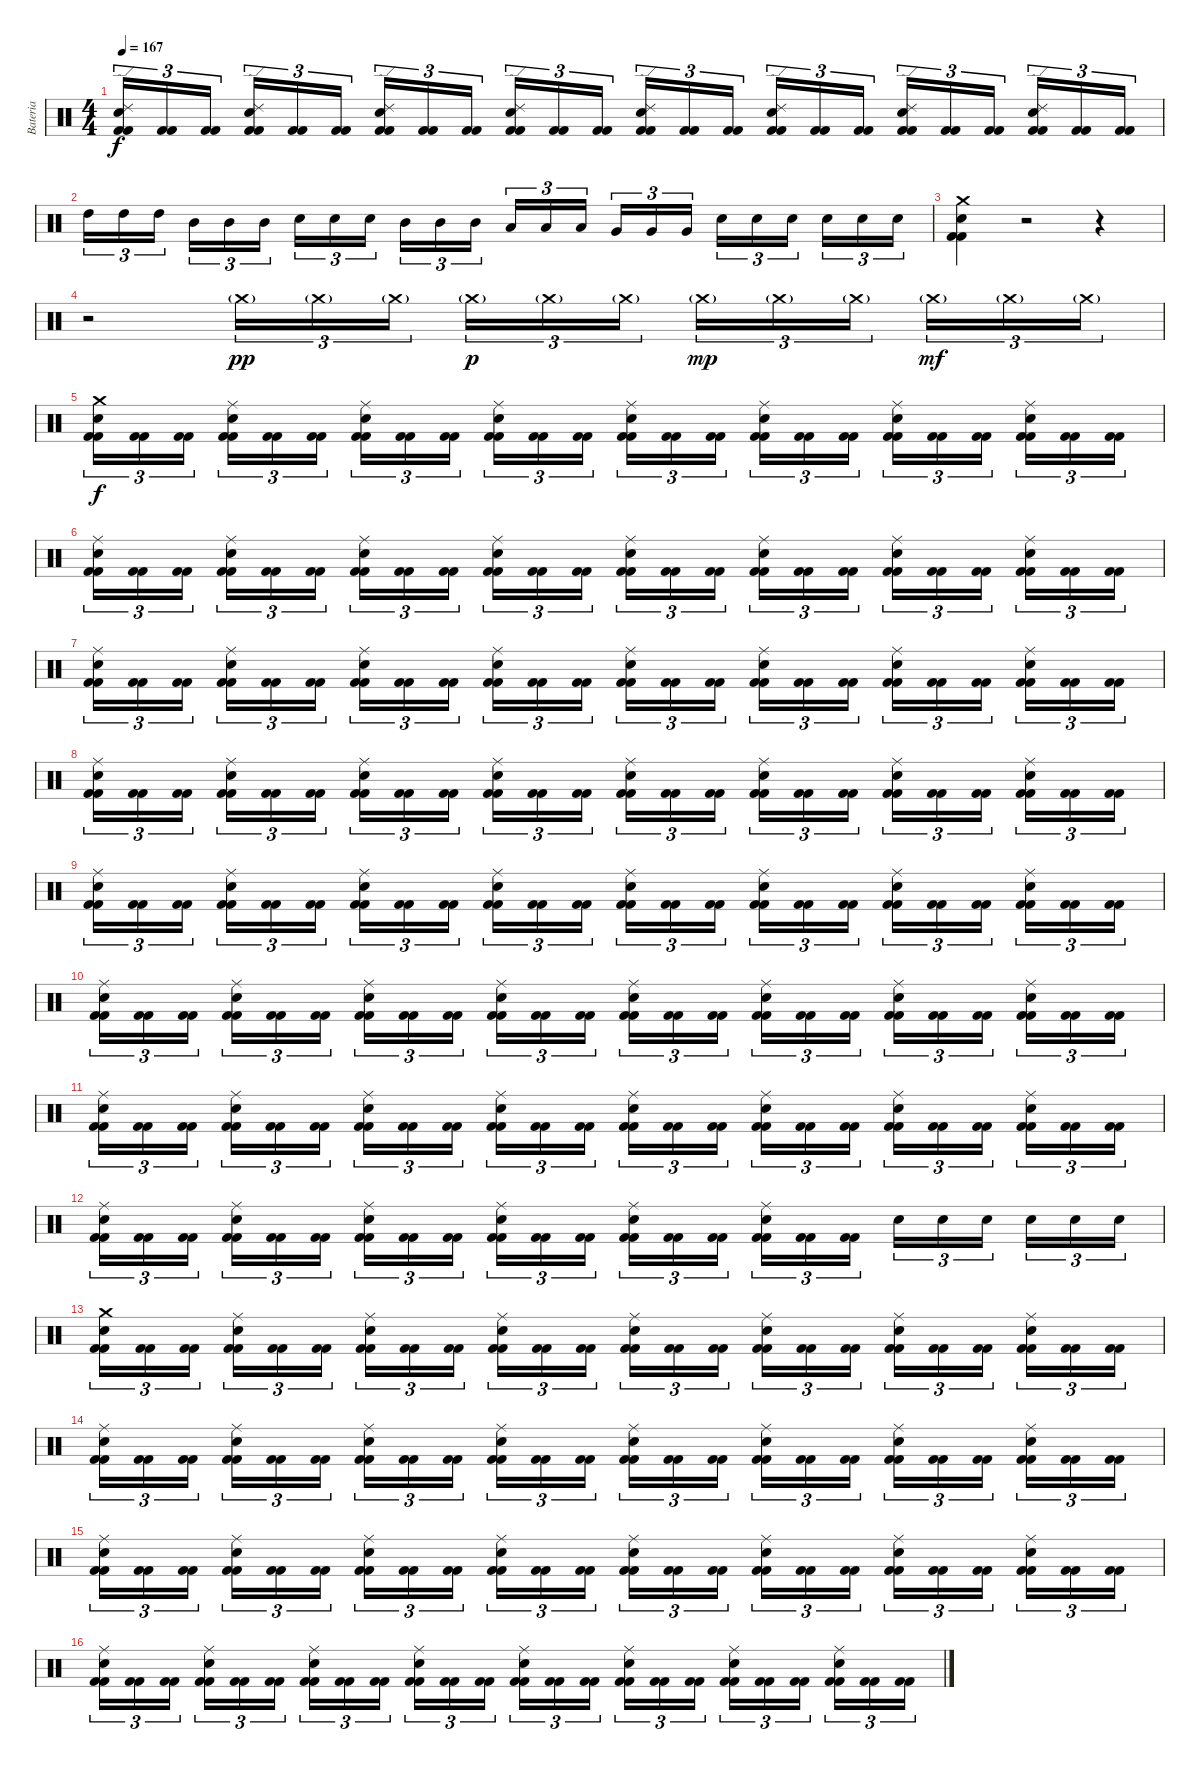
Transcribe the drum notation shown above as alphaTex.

\track ("Bateria" "Bateria") {instrument percussion}
\staff {score}
\articulation defaults
\ts (4 4)
\tempo 167
\clef neutral
\ks c
("Kick (hit) 2" "Kick (hit) 2" "Snare (hit) 2" "Ride (edge) 2").16{tu (3 2) dy f} ("Kick (hit) 2" "Kick (hit) 2").16{tu (3 2)} ("Kick (hit) 2" "Kick (hit) 2").16{tu (3 2)} ("Kick (hit) 2" "Kick (hit) 2" "Snare (hit) 2" "Ride (edge) 2").16{tu (3 2)} ("Kick (hit) 2" "Kick (hit) 2").16{tu (3 2)} ("Kick (hit) 2" "Kick (hit) 2").16{tu (3 2)} ("Kick (hit) 2" "Kick (hit) 2" "Snare (hit) 2" "Ride (edge) 2").16{tu (3 2)} ("Kick (hit) 2" "Kick (hit) 2").16{tu (3 2)} ("Kick (hit) 2" "Kick (hit) 2").16{tu (3 2)} ("Kick (hit) 2" "Kick (hit) 2" "Snare (hit) 2" "Ride (edge) 2").16{tu (3 2)} ("Kick (hit) 2" "Kick (hit) 2").16{tu (3 2)} ("Kick (hit) 2" "Kick (hit) 2").16{tu (3 2)} ("Kick (hit) 2" "Kick (hit) 2" "Snare (hit) 2" "Ride (edge) 2").16{tu (3 2)} ("Kick (hit) 2" "Kick (hit) 2").16{tu (3 2)} ("Kick (hit) 2" "Kick (hit) 2").16{tu (3 2)} ("Kick (hit) 2" "Kick (hit) 2" "Snare (hit) 2" "Ride (edge) 2").16{tu (3 2)} ("Kick (hit) 2" "Kick (hit) 2").16{tu (3 2)} ("Kick (hit) 2" "Kick (hit) 2").16{tu (3 2)} ("Kick (hit) 2" "Kick (hit) 2" "Snare (hit) 2" "Ride (edge) 2").16{tu (3 2)} ("Kick (hit) 2" "Kick (hit) 2").16{tu (3 2)} ("Kick (hit) 2" "Kick (hit) 2").16{tu (3 2)} ("Kick (hit) 2" "Kick (hit) 2" "Snare (hit) 2" "Ride (edge) 2").16{tu (3 2)} ("Kick (hit) 2" "Kick (hit) 2").16{tu (3 2)} ("Kick (hit) 2" "Kick (hit) 2").16{tu (3 2)} |
"High Tom (hit)".16{tu (3 2)} "High Tom (hit)".16{tu (3 2)} "High Tom (hit)".16{tu (3 2)} "Mid Tom (hit)".16{tu (3 2)} "Mid Tom (hit)".16{tu (3 2)} "Mid Tom (hit)".16{tu (3 2)} "Snare (hit) 2".16{tu (3 2)} "Snare (hit) 2".16{tu (3 2)} "Snare (hit) 2".16{tu (3 2)} "Mid Tom (hit)".16{tu (3 2)} "Mid Tom (hit)".16{tu (3 2)} "Mid Tom (hit)".16{tu (3 2)} "Low Tom (hit)".16{tu (3 2)} "Low Tom (hit)".16{tu (3 2)} "Low Tom (hit)".16{tu (3 2)} "Very Low Tom (hit)".16{tu (3 2)} "Very Low Tom (hit)".16{tu (3 2)} "Very Low Tom (hit)".16{tu (3 2)} "Snare (hit) 2".16{tu (3 2)} "Snare (hit) 2".16{tu (3 2)} "Snare (hit) 2".16{tu (3 2)} "Snare (hit) 2".16{tu (3 2)} "Snare (hit) 2".16{tu (3 2)} "Snare (hit) 2".16{tu (3 2)} |
("Kick (hit) 2" "Kick (hit) 2" "Snare (hit) 2" "Crash medium (hit)").4 r.2 r.4 |
r.2 "Crash medium (hit)"{g}.16{tu (3 2) dy pp} "Crash medium (hit)"{g}.16{tu (3 2)} "Crash medium (hit)"{g}.16{tu (3 2)} "Crash medium (hit)"{g}.16{tu (3 2) dy p} "Crash medium (hit)"{g}.16{tu (3 2)} "Crash medium (hit)"{g}.16{tu (3 2)} "Crash medium (hit)"{g}.16{tu (3 2) dy mp} "Crash medium (hit)"{g}.16{tu (3 2)} "Crash medium (hit)"{g}.16{tu (3 2)} "Crash medium (hit)"{g}.16{tu (3 2) dy mf} "Crash medium (hit)"{g}.16{tu (3 2)} "Crash medium (hit)"{g}.16{tu (3 2)} |
("Kick (hit) 2" "Kick (hit) 2" "Snare (hit) 2" "Crash medium (hit)").16{tu (3 2) dy f} ("Kick (hit) 2" "Kick (hit) 2").16{tu (3 2)} ("Kick (hit) 2" "Kick (hit) 2").16{tu (3 2)} ("Kick (hit) 2" "Kick (hit) 2" "Snare (hit) 2" "Ride (middle)").16{tu (3 2)} ("Kick (hit) 2" "Kick (hit) 2").16{tu (3 2)} ("Kick (hit) 2" "Kick (hit) 2").16{tu (3 2)} ("Kick (hit) 2" "Kick (hit) 2" "Snare (hit) 2" "Ride (middle)").16{tu (3 2)} ("Kick (hit) 2" "Kick (hit) 2").16{tu (3 2)} ("Kick (hit) 2" "Kick (hit) 2").16{tu (3 2)} ("Kick (hit) 2" "Kick (hit) 2" "Snare (hit) 2" "Ride (middle)").16{tu (3 2)} ("Kick (hit) 2" "Kick (hit) 2").16{tu (3 2)} ("Kick (hit) 2" "Kick (hit) 2").16{tu (3 2)} ("Kick (hit) 2" "Kick (hit) 2" "Snare (hit) 2" "Ride (middle)").16{tu (3 2)} ("Kick (hit) 2" "Kick (hit) 2").16{tu (3 2)} ("Kick (hit) 2" "Kick (hit) 2").16{tu (3 2)} ("Kick (hit) 2" "Kick (hit) 2" "Snare (hit) 2" "Ride (middle)").16{tu (3 2)} ("Kick (hit) 2" "Kick (hit) 2").16{tu (3 2)} ("Kick (hit) 2" "Kick (hit) 2").16{tu (3 2)} ("Kick (hit) 2" "Kick (hit) 2" "Snare (hit) 2" "Ride (middle)").16{tu (3 2)} ("Kick (hit) 2" "Kick (hit) 2").16{tu (3 2)} ("Kick (hit) 2" "Kick (hit) 2").16{tu (3 2)} ("Kick (hit) 2" "Kick (hit) 2" "Snare (hit) 2" "Ride (middle)").16{tu (3 2)} ("Kick (hit) 2" "Kick (hit) 2").16{tu (3 2)} ("Kick (hit) 2" "Kick (hit) 2").16{tu (3 2)} |
("Kick (hit) 2" "Kick (hit) 2" "Snare (hit) 2" "Ride (middle)").16{tu (3 2)} ("Kick (hit) 2" "Kick (hit) 2").16{tu (3 2)} ("Kick (hit) 2" "Kick (hit) 2").16{tu (3 2)} ("Kick (hit) 2" "Kick (hit) 2" "Snare (hit) 2" "Ride (middle)").16{tu (3 2)} ("Kick (hit) 2" "Kick (hit) 2").16{tu (3 2)} ("Kick (hit) 2" "Kick (hit) 2").16{tu (3 2)} ("Kick (hit) 2" "Kick (hit) 2" "Snare (hit) 2" "Ride (middle)").16{tu (3 2)} ("Kick (hit) 2" "Kick (hit) 2").16{tu (3 2)} ("Kick (hit) 2" "Kick (hit) 2").16{tu (3 2)} ("Kick (hit) 2" "Kick (hit) 2" "Snare (hit) 2" "Ride (middle)").16{tu (3 2)} ("Kick (hit) 2" "Kick (hit) 2").16{tu (3 2)} ("Kick (hit) 2" "Kick (hit) 2").16{tu (3 2)} ("Kick (hit) 2" "Kick (hit) 2" "Snare (hit) 2" "Ride (middle)").16{tu (3 2)} ("Kick (hit) 2" "Kick (hit) 2").16{tu (3 2)} ("Kick (hit) 2" "Kick (hit) 2").16{tu (3 2)} ("Kick (hit) 2" "Kick (hit) 2" "Snare (hit) 2" "Ride (middle)").16{tu (3 2)} ("Kick (hit) 2" "Kick (hit) 2").16{tu (3 2)} ("Kick (hit) 2" "Kick (hit) 2").16{tu (3 2)} ("Kick (hit) 2" "Kick (hit) 2" "Snare (hit) 2" "Ride (middle)").16{tu (3 2)} ("Kick (hit) 2" "Kick (hit) 2").16{tu (3 2)} ("Kick (hit) 2" "Kick (hit) 2").16{tu (3 2)} ("Kick (hit) 2" "Kick (hit) 2" "Snare (hit) 2" "Ride (middle)").16{tu (3 2)} ("Kick (hit) 2" "Kick (hit) 2").16{tu (3 2)} ("Kick (hit) 2" "Kick (hit) 2").16{tu (3 2)} |
("Kick (hit) 2" "Kick (hit) 2" "Snare (hit) 2" "Ride (middle)").16{tu (3 2)} ("Kick (hit) 2" "Kick (hit) 2").16{tu (3 2)} ("Kick (hit) 2" "Kick (hit) 2").16{tu (3 2)} ("Kick (hit) 2" "Kick (hit) 2" "Snare (hit) 2" "Ride (middle)").16{tu (3 2)} ("Kick (hit) 2" "Kick (hit) 2").16{tu (3 2)} ("Kick (hit) 2" "Kick (hit) 2").16{tu (3 2)} ("Kick (hit) 2" "Kick (hit) 2" "Snare (hit) 2" "Ride (middle)").16{tu (3 2)} ("Kick (hit) 2" "Kick (hit) 2").16{tu (3 2)} ("Kick (hit) 2" "Kick (hit) 2").16{tu (3 2)} ("Kick (hit) 2" "Kick (hit) 2" "Snare (hit) 2" "Ride (middle)").16{tu (3 2)} ("Kick (hit) 2" "Kick (hit) 2").16{tu (3 2)} ("Kick (hit) 2" "Kick (hit) 2").16{tu (3 2)} ("Kick (hit) 2" "Kick (hit) 2" "Snare (hit) 2" "Ride (middle)").16{tu (3 2)} ("Kick (hit) 2" "Kick (hit) 2").16{tu (3 2)} ("Kick (hit) 2" "Kick (hit) 2").16{tu (3 2)} ("Kick (hit) 2" "Kick (hit) 2" "Snare (hit) 2" "Ride (middle)").16{tu (3 2)} ("Kick (hit) 2" "Kick (hit) 2").16{tu (3 2)} ("Kick (hit) 2" "Kick (hit) 2").16{tu (3 2)} ("Kick (hit) 2" "Kick (hit) 2" "Snare (hit) 2" "Ride (middle)").16{tu (3 2)} ("Kick (hit) 2" "Kick (hit) 2").16{tu (3 2)} ("Kick (hit) 2" "Kick (hit) 2").16{tu (3 2)} ("Kick (hit) 2" "Kick (hit) 2" "Snare (hit) 2" "Ride (middle)").16{tu (3 2)} ("Kick (hit) 2" "Kick (hit) 2").16{tu (3 2)} ("Kick (hit) 2" "Kick (hit) 2").16{tu (3 2)} |
("Kick (hit) 2" "Kick (hit) 2" "Snare (hit) 2" "Ride (middle)").16{tu (3 2)} ("Kick (hit) 2" "Kick (hit) 2").16{tu (3 2)} ("Kick (hit) 2" "Kick (hit) 2").16{tu (3 2)} ("Kick (hit) 2" "Kick (hit) 2" "Snare (hit) 2" "Ride (middle)").16{tu (3 2)} ("Kick (hit) 2" "Kick (hit) 2").16{tu (3 2)} ("Kick (hit) 2" "Kick (hit) 2").16{tu (3 2)} ("Kick (hit) 2" "Kick (hit) 2" "Snare (hit) 2" "Ride (middle)").16{tu (3 2)} ("Kick (hit) 2" "Kick (hit) 2").16{tu (3 2)} ("Kick (hit) 2" "Kick (hit) 2").16{tu (3 2)} ("Kick (hit) 2" "Kick (hit) 2" "Snare (hit) 2" "Ride (middle)").16{tu (3 2)} ("Kick (hit) 2" "Kick (hit) 2").16{tu (3 2)} ("Kick (hit) 2" "Kick (hit) 2").16{tu (3 2)} ("Kick (hit) 2" "Kick (hit) 2" "Snare (hit) 2" "Ride (middle)").16{tu (3 2)} ("Kick (hit) 2" "Kick (hit) 2").16{tu (3 2)} ("Kick (hit) 2" "Kick (hit) 2").16{tu (3 2)} ("Kick (hit) 2" "Kick (hit) 2" "Snare (hit) 2" "Ride (middle)").16{tu (3 2)} ("Kick (hit) 2" "Kick (hit) 2").16{tu (3 2)} ("Kick (hit) 2" "Kick (hit) 2").16{tu (3 2)} ("Kick (hit) 2" "Kick (hit) 2" "Snare (hit) 2" "Ride (middle)").16{tu (3 2)} ("Kick (hit) 2" "Kick (hit) 2").16{tu (3 2)} ("Kick (hit) 2" "Kick (hit) 2").16{tu (3 2)} ("Kick (hit) 2" "Kick (hit) 2" "Snare (hit) 2" "Ride (middle)").16{tu (3 2)} ("Kick (hit) 2" "Kick (hit) 2").16{tu (3 2)} ("Kick (hit) 2" "Kick (hit) 2").16{tu (3 2)} |
("Kick (hit) 2" "Kick (hit) 2" "Snare (hit) 2" "Ride (middle)").16{tu (3 2)} ("Kick (hit) 2" "Kick (hit) 2").16{tu (3 2)} ("Kick (hit) 2" "Kick (hit) 2").16{tu (3 2)} ("Kick (hit) 2" "Kick (hit) 2" "Snare (hit) 2" "Ride (middle)").16{tu (3 2)} ("Kick (hit) 2" "Kick (hit) 2").16{tu (3 2)} ("Kick (hit) 2" "Kick (hit) 2").16{tu (3 2)} ("Kick (hit) 2" "Kick (hit) 2" "Snare (hit) 2" "Ride (middle)").16{tu (3 2)} ("Kick (hit) 2" "Kick (hit) 2").16{tu (3 2)} ("Kick (hit) 2" "Kick (hit) 2").16{tu (3 2)} ("Kick (hit) 2" "Kick (hit) 2" "Snare (hit) 2" "Ride (middle)").16{tu (3 2)} ("Kick (hit) 2" "Kick (hit) 2").16{tu (3 2)} ("Kick (hit) 2" "Kick (hit) 2").16{tu (3 2)} ("Kick (hit) 2" "Kick (hit) 2" "Snare (hit) 2" "Ride (middle)").16{tu (3 2)} ("Kick (hit) 2" "Kick (hit) 2").16{tu (3 2)} ("Kick (hit) 2" "Kick (hit) 2").16{tu (3 2)} ("Kick (hit) 2" "Kick (hit) 2" "Snare (hit) 2" "Ride (middle)").16{tu (3 2)} ("Kick (hit) 2" "Kick (hit) 2").16{tu (3 2)} ("Kick (hit) 2" "Kick (hit) 2").16{tu (3 2)} ("Kick (hit) 2" "Kick (hit) 2" "Snare (hit) 2" "Ride (middle)").16{tu (3 2)} ("Kick (hit) 2" "Kick (hit) 2").16{tu (3 2)} ("Kick (hit) 2" "Kick (hit) 2").16{tu (3 2)} ("Kick (hit) 2" "Kick (hit) 2" "Snare (hit) 2" "Ride (middle)").16{tu (3 2)} ("Kick (hit) 2" "Kick (hit) 2").16{tu (3 2)} ("Kick (hit) 2" "Kick (hit) 2").16{tu (3 2)} |
("Kick (hit) 2" "Kick (hit) 2" "Snare (hit) 2" "Ride (middle)").16{tu (3 2)} ("Kick (hit) 2" "Kick (hit) 2").16{tu (3 2)} ("Kick (hit) 2" "Kick (hit) 2").16{tu (3 2)} ("Kick (hit) 2" "Kick (hit) 2" "Snare (hit) 2" "Ride (middle)").16{tu (3 2)} ("Kick (hit) 2" "Kick (hit) 2").16{tu (3 2)} ("Kick (hit) 2" "Kick (hit) 2").16{tu (3 2)} ("Kick (hit) 2" "Kick (hit) 2" "Snare (hit) 2" "Ride (middle)").16{tu (3 2)} ("Kick (hit) 2" "Kick (hit) 2").16{tu (3 2)} ("Kick (hit) 2" "Kick (hit) 2").16{tu (3 2)} ("Kick (hit) 2" "Kick (hit) 2" "Snare (hit) 2" "Ride (middle)").16{tu (3 2)} ("Kick (hit) 2" "Kick (hit) 2").16{tu (3 2)} ("Kick (hit) 2" "Kick (hit) 2").16{tu (3 2)} ("Kick (hit) 2" "Kick (hit) 2" "Snare (hit) 2" "Ride (middle)").16{tu (3 2)} ("Kick (hit) 2" "Kick (hit) 2").16{tu (3 2)} ("Kick (hit) 2" "Kick (hit) 2").16{tu (3 2)} ("Kick (hit) 2" "Kick (hit) 2" "Snare (hit) 2" "Ride (middle)").16{tu (3 2)} ("Kick (hit) 2" "Kick (hit) 2").16{tu (3 2)} ("Kick (hit) 2" "Kick (hit) 2").16{tu (3 2)} ("Kick (hit) 2" "Kick (hit) 2" "Snare (hit) 2" "Ride (middle)").16{tu (3 2)} ("Kick (hit) 2" "Kick (hit) 2").16{tu (3 2)} ("Kick (hit) 2" "Kick (hit) 2").16{tu (3 2)} ("Kick (hit) 2" "Kick (hit) 2" "Snare (hit) 2" "Ride (middle)").16{tu (3 2)} ("Kick (hit) 2" "Kick (hit) 2").16{tu (3 2)} ("Kick (hit) 2" "Kick (hit) 2").16{tu (3 2)} |
("Kick (hit) 2" "Kick (hit) 2" "Snare (hit) 2" "Ride (middle)").16{tu (3 2)} ("Kick (hit) 2" "Kick (hit) 2").16{tu (3 2)} ("Kick (hit) 2" "Kick (hit) 2").16{tu (3 2)} ("Kick (hit) 2" "Kick (hit) 2" "Snare (hit) 2" "Ride (middle)").16{tu (3 2)} ("Kick (hit) 2" "Kick (hit) 2").16{tu (3 2)} ("Kick (hit) 2" "Kick (hit) 2").16{tu (3 2)} ("Kick (hit) 2" "Kick (hit) 2" "Snare (hit) 2" "Ride (middle)").16{tu (3 2)} ("Kick (hit) 2" "Kick (hit) 2").16{tu (3 2)} ("Kick (hit) 2" "Kick (hit) 2").16{tu (3 2)} ("Kick (hit) 2" "Kick (hit) 2" "Snare (hit) 2" "Ride (middle)").16{tu (3 2)} ("Kick (hit) 2" "Kick (hit) 2").16{tu (3 2)} ("Kick (hit) 2" "Kick (hit) 2").16{tu (3 2)} ("Kick (hit) 2" "Kick (hit) 2" "Snare (hit) 2" "Ride (middle)").16{tu (3 2)} ("Kick (hit) 2" "Kick (hit) 2").16{tu (3 2)} ("Kick (hit) 2" "Kick (hit) 2").16{tu (3 2)} ("Kick (hit) 2" "Kick (hit) 2" "Snare (hit) 2" "Ride (middle)").16{tu (3 2)} ("Kick (hit) 2" "Kick (hit) 2").16{tu (3 2)} ("Kick (hit) 2" "Kick (hit) 2").16{tu (3 2)} ("Kick (hit) 2" "Kick (hit) 2" "Snare (hit) 2" "Ride (middle)").16{tu (3 2)} ("Kick (hit) 2" "Kick (hit) 2").16{tu (3 2)} ("Kick (hit) 2" "Kick (hit) 2").16{tu (3 2)} ("Kick (hit) 2" "Kick (hit) 2" "Snare (hit) 2" "Ride (middle)").16{tu (3 2)} ("Kick (hit) 2" "Kick (hit) 2").16{tu (3 2)} ("Kick (hit) 2" "Kick (hit) 2").16{tu (3 2)} |
("Kick (hit) 2" "Kick (hit) 2" "Snare (hit) 2" "Ride (middle)").16{tu (3 2)} ("Kick (hit) 2" "Kick (hit) 2").16{tu (3 2)} ("Kick (hit) 2" "Kick (hit) 2").16{tu (3 2)} ("Kick (hit) 2" "Kick (hit) 2" "Snare (hit) 2" "Ride (middle)").16{tu (3 2)} ("Kick (hit) 2" "Kick (hit) 2").16{tu (3 2)} ("Kick (hit) 2" "Kick (hit) 2").16{tu (3 2)} ("Kick (hit) 2" "Kick (hit) 2" "Snare (hit) 2" "Ride (middle)").16{tu (3 2)} ("Kick (hit) 2" "Kick (hit) 2").16{tu (3 2)} ("Kick (hit) 2" "Kick (hit) 2").16{tu (3 2)} ("Kick (hit) 2" "Kick (hit) 2" "Snare (hit) 2" "Ride (middle)").16{tu (3 2)} ("Kick (hit) 2" "Kick (hit) 2").16{tu (3 2)} ("Kick (hit) 2" "Kick (hit) 2").16{tu (3 2)} ("Kick (hit) 2" "Kick (hit) 2" "Snare (hit) 2" "Ride (middle)").16{tu (3 2)} ("Kick (hit) 2" "Kick (hit) 2").16{tu (3 2)} ("Kick (hit) 2" "Kick (hit) 2").16{tu (3 2)} ("Kick (hit) 2" "Kick (hit) 2" "Snare (hit) 2" "Ride (middle)").16{tu (3 2)} ("Kick (hit) 2" "Kick (hit) 2").16{tu (3 2)} ("Kick (hit) 2" "Kick (hit) 2").16{tu (3 2)} "Snare (hit) 2".16{tu (3 2)} "Snare (hit) 2".16{tu (3 2)} "Snare (hit) 2".16{tu (3 2)} "Snare (hit) 2".16{tu (3 2)} "Snare (hit) 2".16{tu (3 2)} "Snare (hit) 2".16{tu (3 2)} |
("Kick (hit) 2" "Kick (hit) 2" "Snare (hit) 2" "Crash medium (hit)").16{tu (3 2)} ("Kick (hit) 2" "Kick (hit) 2").16{tu (3 2)} ("Kick (hit) 2" "Kick (hit) 2").16{tu (3 2)} ("Kick (hit) 2" "Kick (hit) 2" "Snare (hit) 2" "Ride (middle)").16{tu (3 2)} ("Kick (hit) 2" "Kick (hit) 2").16{tu (3 2)} ("Kick (hit) 2" "Kick (hit) 2").16{tu (3 2)} ("Kick (hit) 2" "Kick (hit) 2" "Snare (hit) 2" "Ride (middle)").16{tu (3 2)} ("Kick (hit) 2" "Kick (hit) 2").16{tu (3 2)} ("Kick (hit) 2" "Kick (hit) 2").16{tu (3 2)} ("Kick (hit) 2" "Kick (hit) 2" "Snare (hit) 2" "Ride (middle)").16{tu (3 2)} ("Kick (hit) 2" "Kick (hit) 2").16{tu (3 2)} ("Kick (hit) 2" "Kick (hit) 2").16{tu (3 2)} ("Kick (hit) 2" "Kick (hit) 2" "Snare (hit) 2" "Ride (middle)").16{tu (3 2)} ("Kick (hit) 2" "Kick (hit) 2").16{tu (3 2)} ("Kick (hit) 2" "Kick (hit) 2").16{tu (3 2)} ("Kick (hit) 2" "Kick (hit) 2" "Snare (hit) 2" "Ride (middle)").16{tu (3 2)} ("Kick (hit) 2" "Kick (hit) 2").16{tu (3 2)} ("Kick (hit) 2" "Kick (hit) 2").16{tu (3 2)} ("Kick (hit) 2" "Kick (hit) 2" "Snare (hit) 2" "Ride (middle)").16{tu (3 2)} ("Kick (hit) 2" "Kick (hit) 2").16{tu (3 2)} ("Kick (hit) 2" "Kick (hit) 2").16{tu (3 2)} ("Kick (hit) 2" "Kick (hit) 2" "Snare (hit) 2" "Ride (middle)").16{tu (3 2)} ("Kick (hit) 2" "Kick (hit) 2").16{tu (3 2)} ("Kick (hit) 2" "Kick (hit) 2").16{tu (3 2)} |
("Kick (hit) 2" "Kick (hit) 2" "Snare (hit) 2" "Ride (middle)").16{tu (3 2)} ("Kick (hit) 2" "Kick (hit) 2").16{tu (3 2)} ("Kick (hit) 2" "Kick (hit) 2").16{tu (3 2)} ("Kick (hit) 2" "Kick (hit) 2" "Snare (hit) 2" "Ride (middle)").16{tu (3 2)} ("Kick (hit) 2" "Kick (hit) 2").16{tu (3 2)} ("Kick (hit) 2" "Kick (hit) 2").16{tu (3 2)} ("Kick (hit) 2" "Kick (hit) 2" "Snare (hit) 2" "Ride (middle)").16{tu (3 2)} ("Kick (hit) 2" "Kick (hit) 2").16{tu (3 2)} ("Kick (hit) 2" "Kick (hit) 2").16{tu (3 2)} ("Kick (hit) 2" "Kick (hit) 2" "Snare (hit) 2" "Ride (middle)").16{tu (3 2)} ("Kick (hit) 2" "Kick (hit) 2").16{tu (3 2)} ("Kick (hit) 2" "Kick (hit) 2").16{tu (3 2)} ("Kick (hit) 2" "Kick (hit) 2" "Snare (hit) 2" "Ride (middle)").16{tu (3 2)} ("Kick (hit) 2" "Kick (hit) 2").16{tu (3 2)} ("Kick (hit) 2" "Kick (hit) 2").16{tu (3 2)} ("Kick (hit) 2" "Kick (hit) 2" "Snare (hit) 2" "Ride (middle)").16{tu (3 2)} ("Kick (hit) 2" "Kick (hit) 2").16{tu (3 2)} ("Kick (hit) 2" "Kick (hit) 2").16{tu (3 2)} ("Kick (hit) 2" "Kick (hit) 2" "Snare (hit) 2" "Ride (middle)").16{tu (3 2)} ("Kick (hit) 2" "Kick (hit) 2").16{tu (3 2)} ("Kick (hit) 2" "Kick (hit) 2").16{tu (3 2)} ("Kick (hit) 2" "Kick (hit) 2" "Snare (hit) 2" "Ride (middle)").16{tu (3 2)} ("Kick (hit) 2" "Kick (hit) 2").16{tu (3 2)} ("Kick (hit) 2" "Kick (hit) 2").16{tu (3 2)} |
("Kick (hit) 2" "Kick (hit) 2" "Snare (hit) 2" "Ride (middle)").16{tu (3 2)} ("Kick (hit) 2" "Kick (hit) 2").16{tu (3 2)} ("Kick (hit) 2" "Kick (hit) 2").16{tu (3 2)} ("Kick (hit) 2" "Kick (hit) 2" "Snare (hit) 2" "Ride (middle)").16{tu (3 2)} ("Kick (hit) 2" "Kick (hit) 2").16{tu (3 2)} ("Kick (hit) 2" "Kick (hit) 2").16{tu (3 2)} ("Kick (hit) 2" "Kick (hit) 2" "Snare (hit) 2" "Ride (middle)").16{tu (3 2)} ("Kick (hit) 2" "Kick (hit) 2").16{tu (3 2)} ("Kick (hit) 2" "Kick (hit) 2").16{tu (3 2)} ("Kick (hit) 2" "Kick (hit) 2" "Snare (hit) 2" "Ride (middle)").16{tu (3 2)} ("Kick (hit) 2" "Kick (hit) 2").16{tu (3 2)} ("Kick (hit) 2" "Kick (hit) 2").16{tu (3 2)} ("Kick (hit) 2" "Kick (hit) 2" "Snare (hit) 2" "Ride (middle)").16{tu (3 2)} ("Kick (hit) 2" "Kick (hit) 2").16{tu (3 2)} ("Kick (hit) 2" "Kick (hit) 2").16{tu (3 2)} ("Kick (hit) 2" "Kick (hit) 2" "Snare (hit) 2" "Ride (middle)").16{tu (3 2)} ("Kick (hit) 2" "Kick (hit) 2").16{tu (3 2)} ("Kick (hit) 2" "Kick (hit) 2").16{tu (3 2)} ("Kick (hit) 2" "Kick (hit) 2" "Snare (hit) 2" "Ride (middle)").16{tu (3 2)} ("Kick (hit) 2" "Kick (hit) 2").16{tu (3 2)} ("Kick (hit) 2" "Kick (hit) 2").16{tu (3 2)} ("Kick (hit) 2" "Kick (hit) 2" "Snare (hit) 2" "Ride (middle)").16{tu (3 2)} ("Kick (hit) 2" "Kick (hit) 2").16{tu (3 2)} ("Kick (hit) 2" "Kick (hit) 2").16{tu (3 2)} |
("Kick (hit) 2" "Kick (hit) 2" "Snare (hit) 2" "Ride (middle)").16{tu (3 2)} ("Kick (hit) 2" "Kick (hit) 2").16{tu (3 2)} ("Kick (hit) 2" "Kick (hit) 2").16{tu (3 2)} ("Kick (hit) 2" "Kick (hit) 2" "Snare (hit) 2" "Ride (middle)").16{tu (3 2)} ("Kick (hit) 2" "Kick (hit) 2").16{tu (3 2)} ("Kick (hit) 2" "Kick (hit) 2").16{tu (3 2)} ("Kick (hit) 2" "Kick (hit) 2" "Snare (hit) 2" "Ride (middle)").16{tu (3 2)} ("Kick (hit) 2" "Kick (hit) 2").16{tu (3 2)} ("Kick (hit) 2" "Kick (hit) 2").16{tu (3 2)} ("Kick (hit) 2" "Kick (hit) 2" "Snare (hit) 2" "Ride (middle)").16{tu (3 2)} ("Kick (hit) 2" "Kick (hit) 2").16{tu (3 2)} ("Kick (hit) 2" "Kick (hit) 2").16{tu (3 2)} ("Kick (hit) 2" "Kick (hit) 2" "Snare (hit) 2" "Ride (middle)").16{tu (3 2)} ("Kick (hit) 2" "Kick (hit) 2").16{tu (3 2)} ("Kick (hit) 2" "Kick (hit) 2").16{tu (3 2)} ("Kick (hit) 2" "Kick (hit) 2" "Snare (hit) 2" "Ride (middle)").16{tu (3 2)} ("Kick (hit) 2" "Kick (hit) 2").16{tu (3 2)} ("Kick (hit) 2" "Kick (hit) 2").16{tu (3 2)} ("Kick (hit) 2" "Kick (hit) 2" "Snare (hit) 2" "Ride (middle)").16{tu (3 2)} ("Kick (hit) 2" "Kick (hit) 2").16{tu (3 2)} ("Kick (hit) 2" "Kick (hit) 2").16{tu (3 2)} ("Kick (hit) 2" "Kick (hit) 2" "Snare (hit) 2" "Ride (middle)").16{tu (3 2)} ("Kick (hit) 2" "Kick (hit) 2").16{tu (3 2)} ("Kick (hit) 2" "Kick (hit) 2").16{tu (3 2)}
